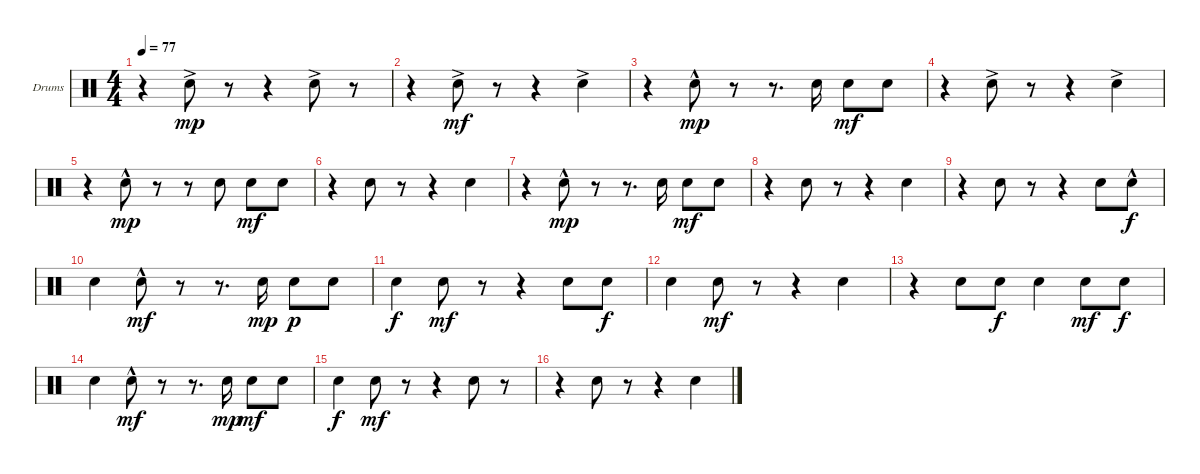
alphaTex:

\bracketExtendMode groupsimilarinstruments
\firstSystemTrackNameOrientation horizontal
\otherSystemsTrackNameOrientation horizontal
\track ("Drumkit Гурьянов" "Drums") {instrument percussion}
\staff {score}
\articulation defaults
\ts (4 4)
\tempo 77
\clef neutral
\scale
0.333333
\ks c
r.4{dy mp} "Snare (hit) 2"{ac}.8 r.8 r.4 "Snare (hit) 2"{ac}.8 r.8 |
\scale
0.333333 r.4 "Snare (hit) 2"{ac}.8{dy mf} r.8 r.4 "Snare (hit) 2"{ac}.4 |
\scale
0.333333 r.4 "Snare (hit) 2"{hac}.8{dy mp} r.8 r.8{d} "Snare (hit) 2".16 "Snare (hit) 2".8{dy mf} "Snare (hit) 2".8 |
\scale
0.333333 r.4 "Snare (hit) 2"{ac}.8 r.8 r.4 "Snare (hit) 2"{ac}.4 |
\scale
0.333333 r.4 "Snare (hit) 2"{hac}.8{dy mp} r.8 r.8 "Snare (hit) 2".8 "Snare (hit) 2".8{dy mf} "Snare (hit) 2".8 |
\scale
0.333333 r.4 "Snare (hit) 2".8 r.8 r.4 "Snare (hit) 2".4 |
\scale
0.333333 r.4 "Snare (hit) 2"{hac}.8{dy mp} r.8 r.8{d} "Snare (hit) 2".16 "Snare (hit) 2".8{dy mf} "Snare (hit) 2".8 |
\scale
0.333333 r.4 "Snare (hit) 2".8 r.8 r.4 "Snare (hit) 2".4 |
\scale
0.333333 r.4 "Snare (hit) 2".8 r.8 r.4 "Snare (hit) 2".8 "Snare (hit) 2"{hac}.8{dy f} |
\scale
0.333333 "Snare (hit) 2".4 "Snare (hit) 2"{hac}.8{dy mf} r.8 r.8{d} "Snare (hit) 2".16{dy mp} "Snare (hit) 2".8{dy p} "Snare (hit) 2".8 |
\scale
0.333333 "Snare (hit) 2".4{dy f} "Snare (hit) 2".8{dy mf} r.8 r.4 "Snare (hit) 2".8 "Snare (hit) 2".8{dy f} |
\scale
0.333333 "Snare (hit) 2".4 "Snare (hit) 2".8{dy mf} r.8 r.4 "Snare (hit) 2".4 |
\scale
0.333333 r.4 "Snare (hit) 2".8 "Snare (hit) 2".8{dy f} "Snare (hit) 2".4 "Snare (hit) 2".8{dy mf} "Snare (hit) 2".8{dy f} |
\scale
0.333333 "Snare (hit) 2".4 "Snare (hit) 2"{hac}.8{dy mf} r.8 r.8{d} "Snare (hit) 2".16{dy mp} "Snare (hit) 2".8{dy mf} "Snare (hit) 2".8 |
\scale
0.333333 "Snare (hit) 2".4{dy f} "Snare (hit) 2".8{dy mf} r.8 r.4 "Snare (hit) 2".8 r.8 |
\scale
0.333333 r.4 "Snare (hit) 2".8 r.8 r.4 "Snare (hit) 2".4
